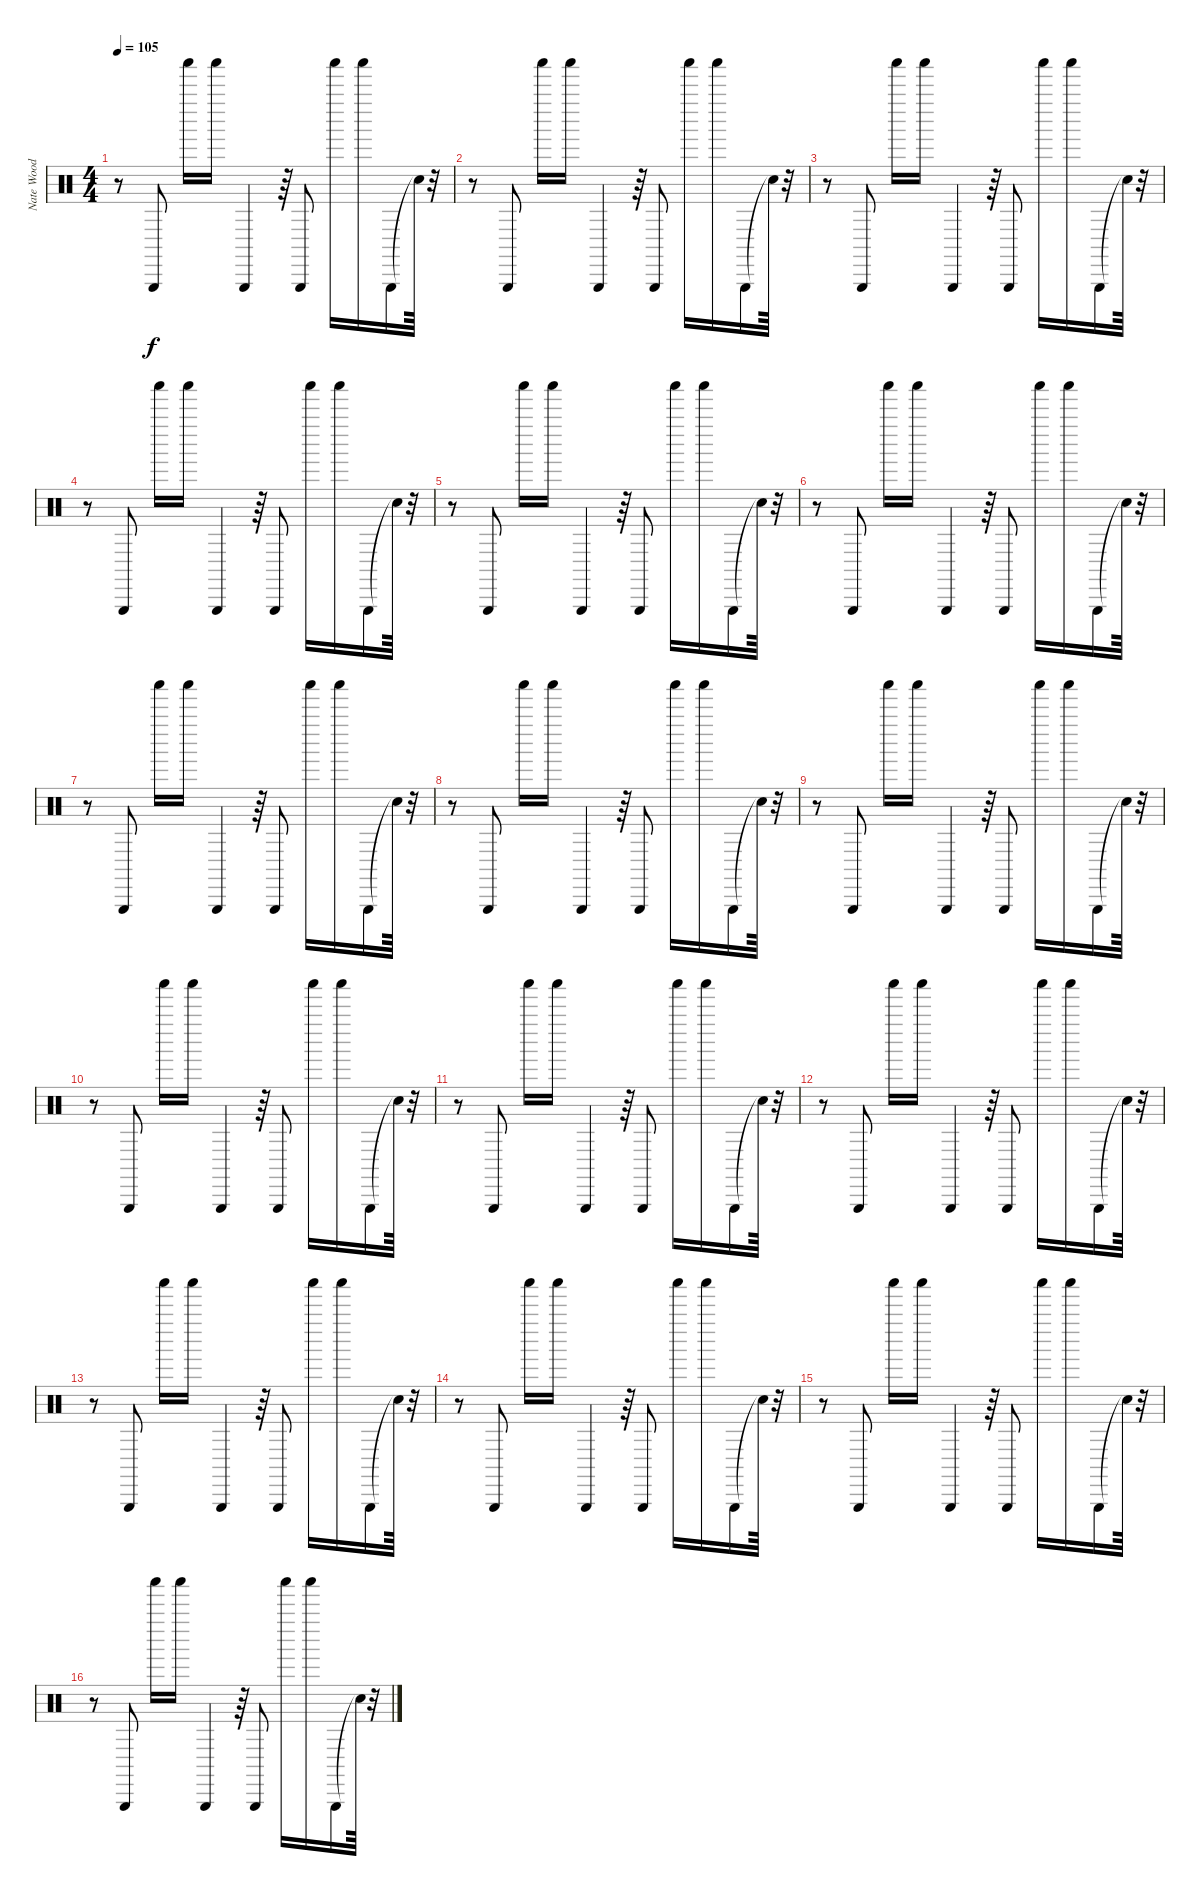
\track ("Nate Wood " "Nate Wood ") {instrument percussion}
\staff {score}
\articulation defaults
\ts (4 4)
\tempo 105
\clef neutral
\ks c
r.8{dy f} "Triangle (hit)".8 "Shaker (hit)".16 "Shaker (hit)".16 "Triangle (hit)".4 r.64 "Triangle (hit)".8 "Shaker (hit)".16 "Shaker (hit)".16 "Triangle (hit)".16 "Snare (hit)"{t}.64 r.32 |
r.8 "Triangle (hit)".8 "Shaker (hit)".16 "Shaker (hit)".16 "Triangle (hit)".4 r.64 "Triangle (hit)".8 "Shaker (hit)".16 "Shaker (hit)".16 "Triangle (hit)".16 "Snare (hit)"{t}.64 r.32 |
r.8 "Triangle (hit)".8 "Shaker (hit)".16 "Shaker (hit)".16 "Triangle (hit)".4 r.64 "Triangle (hit)".8 "Shaker (hit)".16 "Shaker (hit)".16 "Triangle (hit)".16 "Snare (hit)"{t}.64 r.32 |
r.8 "Triangle (hit)".8 "Shaker (hit)".16 "Shaker (hit)".16 "Triangle (hit)".4 r.64 "Triangle (hit)".8 "Shaker (hit)".16 "Shaker (hit)".16 "Triangle (hit)".16 "Snare (hit)"{t}.64 r.32 |
r.8 "Triangle (hit)".8 "Shaker (hit)".16 "Shaker (hit)".16 "Triangle (hit)".4 r.64 "Triangle (hit)".8 "Shaker (hit)".16 "Shaker (hit)".16 "Triangle (hit)".16 "Snare (hit)"{t}.64 r.32 |
r.8 "Triangle (hit)".8 "Shaker (hit)".16 "Shaker (hit)".16 "Triangle (hit)".4 r.64 "Triangle (hit)".8 "Shaker (hit)".16 "Shaker (hit)".16 "Triangle (hit)".16 "Snare (hit)"{t}.64 r.32 |
r.8 "Triangle (hit)".8 "Shaker (hit)".16 "Shaker (hit)".16 "Triangle (hit)".4 r.64 "Triangle (hit)".8 "Shaker (hit)".16 "Shaker (hit)".16 "Triangle (hit)".16 "Snare (hit)"{t}.64 r.32 |
r.8 "Triangle (hit)".8 "Shaker (hit)".16 "Shaker (hit)".16 "Triangle (hit)".4 r.64 "Triangle (hit)".8 "Shaker (hit)".16 "Shaker (hit)".16 "Triangle (hit)".16 "Snare (hit)"{t}.64 r.32 |
r.8 "Triangle (hit)".8 "Shaker (hit)".16 "Shaker (hit)".16 "Triangle (hit)".4 r.64 "Triangle (hit)".8 "Shaker (hit)".16 "Shaker (hit)".16 "Triangle (hit)".16 "Snare (hit)"{t}.64 r.32 |
r.8 "Triangle (hit)".8 "Shaker (hit)".16 "Shaker (hit)".16 "Triangle (hit)".4 r.64 "Triangle (hit)".8 "Shaker (hit)".16 "Shaker (hit)".16 "Triangle (hit)".16 "Snare (hit)"{t}.64 r.32 |
r.8 "Triangle (hit)".8 "Shaker (hit)".16 "Shaker (hit)".16 "Triangle (hit)".4 r.64 "Triangle (hit)".8 "Shaker (hit)".16 "Shaker (hit)".16 "Triangle (hit)".16 "Snare (hit)"{t}.64 r.32 |
r.8 "Triangle (hit)".8 "Shaker (hit)".16 "Shaker (hit)".16 "Triangle (hit)".4 r.64 "Triangle (hit)".8 "Shaker (hit)".16 "Shaker (hit)".16 "Triangle (hit)".16 "Snare (hit)"{t}.64 r.32 |
r.8 "Triangle (hit)".8 "Shaker (hit)".16 "Shaker (hit)".16 "Triangle (hit)".4 r.64 "Triangle (hit)".8 "Shaker (hit)".16 "Shaker (hit)".16 "Triangle (hit)".16 "Snare (hit)"{t}.64 r.32 |
r.8 "Triangle (hit)".8 "Shaker (hit)".16 "Shaker (hit)".16 "Triangle (hit)".4 r.64 "Triangle (hit)".8 "Shaker (hit)".16 "Shaker (hit)".16 "Triangle (hit)".16 "Snare (hit)"{t}.64 r.32 |
r.8 "Triangle (hit)".8 "Shaker (hit)".16 "Shaker (hit)".16 "Triangle (hit)".4 r.64 "Triangle (hit)".8 "Shaker (hit)".16 "Shaker (hit)".16 "Triangle (hit)".16 "Snare (hit)"{t}.64 r.32 |
r.8 "Triangle (hit)".8 "Shaker (hit)".16 "Shaker (hit)".16 "Triangle (hit)".4 r.64 "Triangle (hit)".8 "Shaker (hit)".16 "Shaker (hit)".16 "Triangle (hit)".16 "Snare (hit)"{t}.64 r.32
